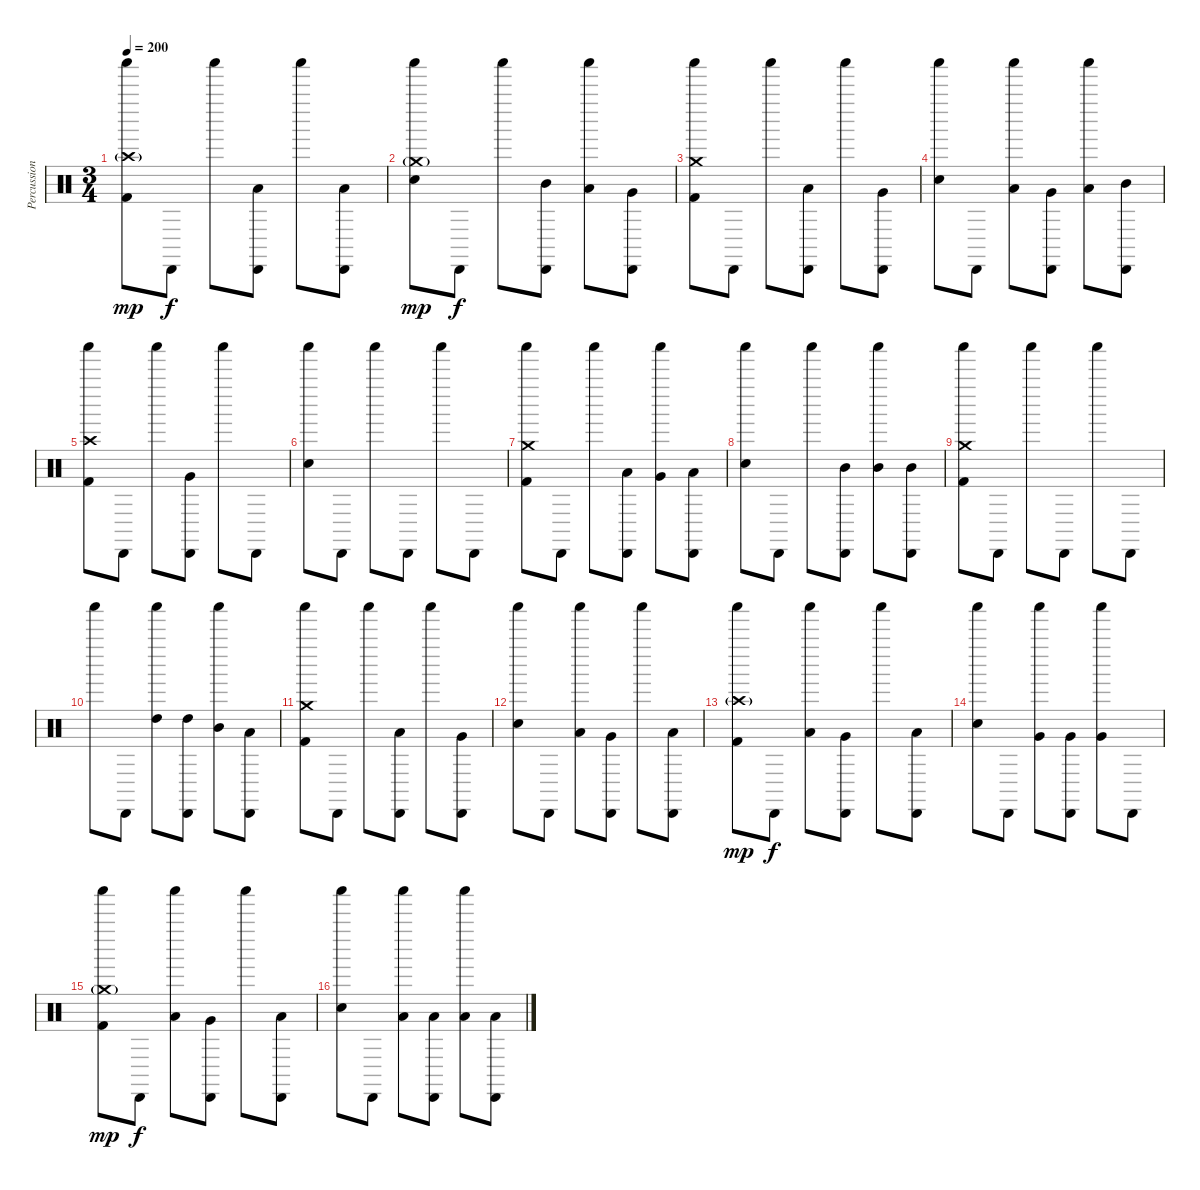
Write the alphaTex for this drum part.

\track ("Percussion" "Percussion") {instrument percussion}
\staff {score}
\articulation defaults
\ts (3 4)
\tempo 200
\clef neutral
\ks c
("Shaker (hit)" "Crash high (hit)"{g} "Kick (hit) 2").8{dy mp} "Cabasa (hit)".8{dy f} "Shaker (hit)".8 ("Cabasa (hit)" "Low Tom (hit)").8 "Shaker (hit)".8 ("Cabasa (hit)" "Low Tom (hit)").8 |
("Shaker (hit)" "Crash medium (hit)"{g} "Electric Snare (hit)").8{dy mp} "Cabasa (hit)".8{dy f} "Shaker (hit)".8 ("Cabasa (hit)" "Mid Tom (hit)").8 ("Shaker (hit)" "Low Tom (hit)").8 ("Cabasa (hit)" "Very Low Tom (hit)").8 |
("Shaker (hit)" "Crash medium (hit)" "Kick (hit) 2").8 "Cabasa (hit)".8 "Shaker (hit)".8 ("Cabasa (hit)" "Low Tom (hit)").8 "Shaker (hit)".8 ("Cabasa (hit)" "Very Low Tom (hit)").8 |
("Shaker (hit)" "Electric Snare (hit)").8 "Cabasa (hit)".8 ("Shaker (hit)" "Low Tom (hit)").8 ("Cabasa (hit)" "Very Low Tom (hit)").8 ("Shaker (hit)" "Low Tom (hit)").8 ("Cabasa (hit)" "Mid Tom (hit)").8 |
("Shaker (hit)" "Crash high (hit)" "Kick (hit) 2").8 "Cabasa (hit)".8 "Shaker (hit)".8 ("Cabasa (hit)" "Very Low Tom (hit)").8 "Shaker (hit)".8 "Cabasa (hit)".8 |
("Shaker (hit)" "Electric Snare (hit)").8 "Cabasa (hit)".8 "Shaker (hit)".8 "Cabasa (hit)".8 "Shaker (hit)".8 "Cabasa (hit)".8 |
("Shaker (hit)" "Crash medium (hit)" "Kick (hit) 2").8 "Cabasa (hit)".8 "Shaker (hit)".8 ("Cabasa (hit)" "Low Tom (hit)").8 ("Shaker (hit)" "Very Low Tom (hit)").8 ("Cabasa (hit)" "Low Tom (hit)").8 |
("Shaker (hit)" "Electric Snare (hit)").8 "Cabasa (hit)".8 "Shaker (hit)".8 ("Cabasa (hit)" "Mid Tom (hit)").8 ("Shaker (hit)" "Mid Tom (hit)").8 ("Cabasa (hit)" "Mid Tom (hit)").8 |
("Shaker (hit)" "Crash medium (hit)" "Kick (hit) 2").8 "Cabasa (hit)".8 "Shaker (hit)".8 "Cabasa (hit)".8 "Shaker (hit)".8 "Cabasa (hit)".8 |
"Shaker (hit)".8 "Cabasa (hit)".8 ("Shaker (hit)" "High Tom (hit)").8 ("Cabasa (hit)" "High Tom (hit)").8 ("Shaker (hit)" "Mid Tom (hit)").8 ("Cabasa (hit)" "Low Tom (hit)").8 |
("Shaker (hit)" "Crash medium (hit)" "Kick (hit) 2").8 "Cabasa (hit)".8 "Shaker (hit)".8 ("Cabasa (hit)" "Low Tom (hit)").8 "Shaker (hit)".8 ("Cabasa (hit)" "Very Low Tom (hit)").8 |
("Shaker (hit)" "Electric Snare (hit)").8 "Cabasa (hit)".8 ("Shaker (hit)" "Low Tom (hit)").8 ("Cabasa (hit)" "Very Low Tom (hit)").8 "Shaker (hit)".8 ("Cabasa (hit)" "Low Tom (hit)").8 |
("Shaker (hit)" "Crash high (hit)"{g} "Kick (hit) 2").8{dy mp} "Cabasa (hit)".8{dy f} ("Shaker (hit)" "Low Tom (hit)").8 ("Cabasa (hit)" "Very Low Tom (hit)").8 "Shaker (hit)".8 ("Cabasa (hit)" "Low Tom (hit)").8 |
("Shaker (hit)" "Electric Snare (hit)").8 "Cabasa (hit)".8 ("Shaker (hit)" "Very Low Tom (hit)").8 ("Cabasa (hit)" "Very Low Tom (hit)").8 ("Shaker (hit)" "Very Low Tom (hit)").8 "Cabasa (hit)".8 |
("Shaker (hit)" "Crash medium (hit)"{g} "Kick (hit) 2").8{dy mp} "Cabasa (hit)".8{dy f} ("Shaker (hit)" "Low Tom (hit)").8 ("Cabasa (hit)" "Very Low Tom (hit)").8 "Shaker (hit)".8 ("Cabasa (hit)" "Low Tom (hit)").8 |
("Shaker (hit)" "Electric Snare (hit)").8 "Cabasa (hit)".8 ("Shaker (hit)" "Low Floor Tom (hit)").8 ("Cabasa (hit)" "Low Floor Tom (hit)").8 ("Shaker (hit)" "Low Floor Tom (hit)").8 ("Cabasa (hit)" "Low Tom (hit)").8
